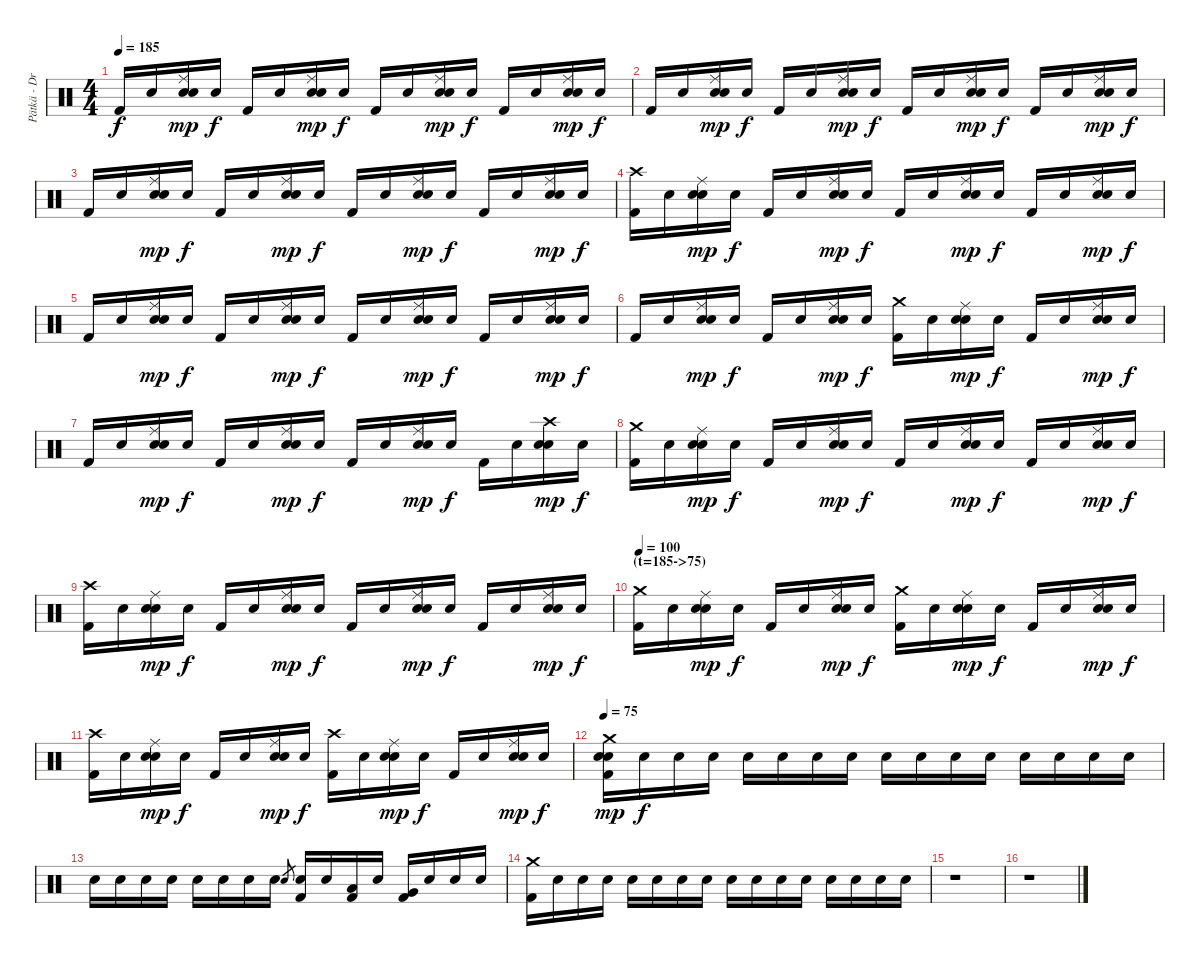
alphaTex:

\track ("Pätkä - Drums" "Pätkä - Dr") {instrument percussion}
\staff {score}
\articulation defaults
\ts (4 4)
\tempo 185
\clef neutral
\ks c "Kick (hit) 2".16{dy f} "Snare (hit)".16
("Ride (middle)" "Electric Snare (hit)" "Snare (hit) 2").16{dy mp} "Snare (hit)".16{dy f} "Kick (hit) 2".16 "Snare (hit)".16 ("Ride (middle)" "Electric Snare (hit)" "Snare (hit) 2").16{dy mp} "Snare (hit)".16{dy f} "Kick (hit) 2".16 "Snare (hit)".16 ("Ride (middle)" "Electric Snare (hit)" "Snare (hit) 2").16{dy mp} "Snare (hit)".16{dy f} "Kick (hit) 2".16 "Snare (hit)".16 ("Ride (middle)" "Electric Snare (hit)" "Snare (hit) 2").16{dy mp} "Snare (hit)".16{dy f} |
"Kick (hit) 2".16 "Snare (hit)".16 ("Ride (middle)" "Electric Snare (hit)" "Snare (hit) 2").16{dy mp} "Snare (hit)".16{dy f} "Kick (hit) 2".16 "Snare (hit)".16 ("Ride (middle)" "Electric Snare (hit)" "Snare (hit) 2").16{dy mp} "Snare (hit)".16{dy f} "Kick (hit) 2".16 "Snare (hit)".16 ("Ride (middle)" "Electric Snare (hit)" "Snare (hit) 2").16{dy mp} "Snare (hit)".16{dy f} "Kick (hit) 2".16 "Snare (hit)".16 ("Ride (middle)" "Electric Snare (hit)" "Snare (hit) 2").16{dy mp} "Snare (hit)".16{dy f} |
"Kick (hit) 2".16 "Snare (hit)".16 ("Ride (middle)" "Electric Snare (hit)" "Snare (hit) 2").16{dy mp} "Snare (hit)".16{dy f} "Kick (hit) 2".16 "Snare (hit)".16 ("Ride (middle)" "Electric Snare (hit)" "Snare (hit) 2").16{dy mp} "Snare (hit)".16{dy f} "Kick (hit) 2".16 "Snare (hit)".16 ("Ride (middle)" "Electric Snare (hit)" "Snare (hit) 2").16{dy mp} "Snare (hit)".16{dy f} "Kick (hit) 2".16 "Snare (hit)".16 ("Ride (middle)" "Electric Snare (hit)" "Snare (hit) 2").16{dy mp} "Snare (hit)".16{dy f} |
("Crash high (hit)" "Kick (hit) 2").16 "Snare (hit)".16 ("Ride (middle)" "Electric Snare (hit)" "Snare (hit) 2").16{dy mp} "Snare (hit)".16{dy f} "Kick (hit) 2".16 "Snare (hit)".16 ("Ride (middle)" "Electric Snare (hit)" "Snare (hit) 2").16{dy mp} "Snare (hit)".16{dy f} "Kick (hit) 2".16 "Snare (hit)".16 ("Ride (middle)" "Electric Snare (hit)" "Snare (hit) 2").16{dy mp} "Snare (hit)".16{dy f} "Kick (hit) 2".16 "Snare (hit)".16 ("Ride (middle)" "Electric Snare (hit)" "Snare (hit) 2").16{dy mp} "Snare (hit)".16{dy f} |
"Kick (hit) 2".16 "Snare (hit)".16 ("Ride (middle)" "Electric Snare (hit)" "Snare (hit) 2").16{dy mp} "Snare (hit)".16{dy f} "Kick (hit) 2".16 "Snare (hit)".16 ("Ride (middle)" "Electric Snare (hit)" "Snare (hit) 2").16{dy mp} "Snare (hit)".16{dy f} "Kick (hit) 2".16 "Snare (hit)".16 ("Ride (middle)" "Electric Snare (hit)" "Snare (hit) 2").16{dy mp} "Snare (hit)".16{dy f} "Kick (hit) 2".16 "Snare (hit)".16 ("Ride (middle)" "Electric Snare (hit)" "Snare (hit) 2").16{dy mp} "Snare (hit)".16{dy f} |
"Kick (hit) 2".16 "Snare (hit)".16 ("Ride (middle)" "Electric Snare (hit)" "Snare (hit) 2").16{dy mp} "Snare (hit)".16{dy f} "Kick (hit) 2".16 "Snare (hit)".16 ("Ride (middle)" "Electric Snare (hit)" "Snare (hit) 2").16{dy mp} "Snare (hit)".16{dy f} ("Crash medium (hit)" "Kick (hit) 2").16 "Snare (hit)".16 ("Ride (middle)" "Electric Snare (hit)" "Snare (hit) 2").16{dy mp} "Snare (hit)".16{dy f} "Kick (hit) 2".16 "Snare (hit)".16 ("Ride (middle)" "Electric Snare (hit)" "Snare (hit) 2").16{dy mp} "Snare (hit)".16{dy f} |
"Kick (hit) 2".16 "Snare (hit)".16 ("Ride (middle)" "Electric Snare (hit)" "Snare (hit) 2").16{dy mp} "Snare (hit)".16{dy f} "Kick (hit) 2".16 "Snare (hit)".16 ("Ride (middle)" "Electric Snare (hit)" "Snare (hit) 2").16{dy mp} "Snare (hit)".16{dy f} "Kick (hit) 2".16 "Snare (hit)".16 ("Ride (middle)" "Electric Snare (hit)" "Snare (hit) 2").16{dy mp} "Snare (hit)".16{dy f} "Kick (hit) 2".16 "Snare (hit)".16 ("Crash high (hit)" "Electric Snare (hit)" "Snare (hit) 2").16{dy mp} "Snare (hit)".16{dy f} |
("Crash medium (hit)" "Kick (hit) 2").16 "Snare (hit)".16 ("Ride (middle)" "Electric Snare (hit)" "Snare (hit) 2").16{dy mp} "Snare (hit)".16{dy f} "Kick (hit) 2".16 "Snare (hit)".16 ("Ride (middle)" "Electric Snare (hit)" "Snare (hit) 2").16{dy mp} "Snare (hit)".16{dy f} "Kick (hit) 2".16 "Snare (hit)".16 ("Ride (middle)" "Electric Snare (hit)" "Snare (hit) 2").16{dy mp} "Snare (hit)".16{dy f} "Kick (hit) 2".16 "Snare (hit)".16 ("Ride (middle)" "Electric Snare (hit)" "Snare (hit) 2").16{dy mp} "Snare (hit)".16{dy f} |
("Crash high (hit)" "Kick (hit) 2").16 "Snare (hit)".16 ("Ride (middle)" "Electric Snare (hit)" "Snare (hit) 2").16{dy mp} "Snare (hit)".16{dy f} "Kick (hit) 2".16 "Snare (hit)".16 ("Ride (middle)" "Electric Snare (hit)" "Snare (hit) 2").16{dy mp} "Snare (hit)".16{dy f} "Kick (hit) 2".16 "Snare (hit)".16 ("Ride (middle)" "Electric Snare (hit)" "Snare (hit) 2").16{dy mp} "Snare (hit)".16{dy f} "Kick (hit) 2".16 "Snare (hit)".16 ("Ride (middle)" "Electric Snare (hit)" "Snare (hit) 2").16{dy mp} "Snare (hit)".16{dy f} |
\section ("" "(t=185->75)")
\tempo 100
("Crash medium (hit)" "Kick (hit) 2").16{volume 16 balance 8} "Snare (hit)".16 ("Ride (middle)" "Electric Snare (hit)" "Snare (hit) 2").16{dy mp} "Snare (hit)".16{dy f} "Kick (hit) 2".16 "Snare (hit)".16 ("Ride (middle)" "Electric Snare (hit)" "Snare (hit) 2").16{dy mp} "Snare (hit)".16{dy f} ("Crash medium (hit)" "Kick (hit) 2").16 "Snare (hit)".16 ("Ride (middle)" "Electric Snare (hit)" "Snare (hit) 2").16{dy mp} "Snare (hit)".16{dy f} "Kick (hit) 2".16 "Snare (hit)".16 ("Ride (middle)" "Electric Snare (hit)" "Snare (hit) 2").16{dy mp} "Snare (hit)".16{dy f} |
("Crash high (hit)" "Kick (hit) 2").16 "Snare (hit)".16 ("Ride (middle)" "Electric Snare (hit)" "Snare (hit) 2").16{dy mp} "Snare (hit)".16{dy f} "Kick (hit) 2".16 "Snare (hit)".16 ("Ride (middle)" "Electric Snare (hit)" "Snare (hit) 2").16{dy mp} "Snare (hit)".16{dy f} ("Crash high (hit)" "Kick (hit) 2").16 "Snare (hit)".16 ("Ride (middle)" "Electric Snare (hit)" "Snare (hit) 2").16{dy mp} "Snare (hit)".16{dy f} "Kick (hit) 2".16 "Snare (hit)".16 ("Ride (middle)" "Electric Snare (hit)" "Snare (hit) 2").16{dy mp} "Snare (hit)".16{dy f} |
\tempo 75
("Crash medium (hit)" "Electric Snare (hit)" "Snare (hit) 2" "Kick (hit) 2").16{dy mp} "Snare (hit)".16{dy f} "Snare (hit)".16 "Snare (hit)".16 "Snare (hit)".16 "Snare (hit)".16 "Snare (hit)".16 "Snare (hit)".16 "Snare (hit)".16 "Snare (hit)".16 "Snare (hit)".16 "Snare (hit)".16 "Snare (hit)".16 "Snare (hit)".16 "Snare (hit)".16 "Snare (hit)".16 |
"Snare (hit)".16 "Snare (hit)".16 "Snare (hit)".16 "Snare (hit)".16 "Snare (hit)".16 "Snare (hit)".16 "Snare (hit)".16 "Snare (hit)".16 "Electric Snare (hit)".8{gr} ("Electric Snare (hit)" "Kick (hit) 2").16 "Snare (hit)".16 ("Low Tom (hit)" "Kick (hit) 2").16 "Snare (hit)".16 ("Very Low Tom (hit)" "Kick (hit) 2").16 "Snare (hit)".16 "Snare (hit)".16 "Snare (hit)".16 |
("Crash medium (hit)" "Kick (hit) 2").16 "Snare (hit)".16 "Snare (hit)".16 "Snare (hit)".16 "Snare (hit)".16 "Snare (hit)".16 "Snare (hit)".16 "Snare (hit)".16 "Snare (hit)".16 "Snare (hit)".16 "Snare (hit)".16 "Snare (hit)".16 "Snare (hit)".16 "Snare (hit)".16 "Snare (hit)".16 "Snare (hit)".16 |
r.1 |
r.1
